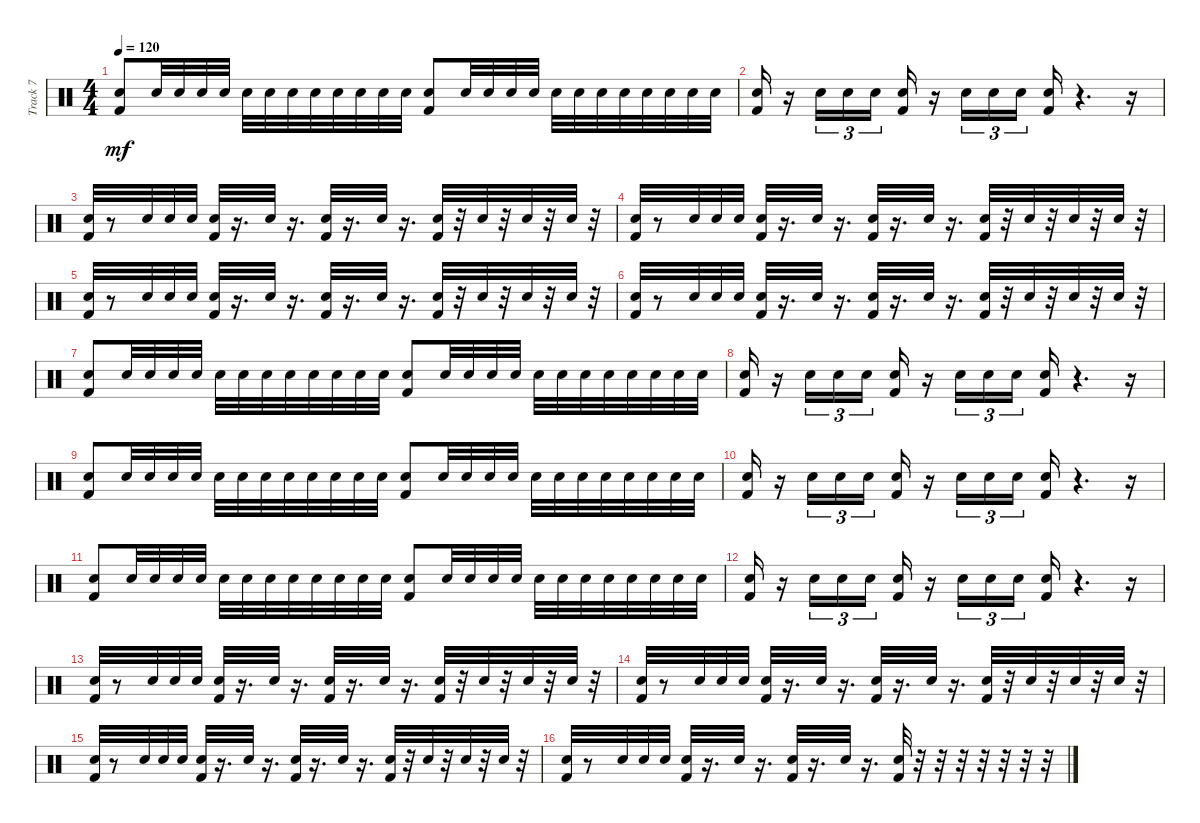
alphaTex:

\track ("Track 7" "Track 7") {instrument percussion}
\staff {score}
\articulation defaults
\ts (4 4)
\tempo 120
\clef neutral
\ks c
("Electric Snare (hit)" "Kick (hit) 2").8{dy mf} "Electric Snare (hit)".32 "Electric Snare (hit)".32 "Electric Snare (hit)".32 "Electric Snare (hit)".32 "Electric Snare (hit)".32 "Electric Snare (hit)".32 "Electric Snare (hit)".32 "Electric Snare (hit)".32 "Electric Snare (hit)".32 "Electric Snare (hit)".32 "Electric Snare (hit)".32 "Electric Snare (hit)".32 ("Electric Snare (hit)" "Kick (hit) 2").8 "Electric Snare (hit)".32 "Electric Snare (hit)".32 "Electric Snare (hit)".32 "Electric Snare (hit)".32 "Electric Snare (hit)".32 "Electric Snare (hit)".32 "Electric Snare (hit)".32 "Electric Snare (hit)".32 "Electric Snare (hit)".32 "Electric Snare (hit)".32 "Electric Snare (hit)".32 "Electric Snare (hit)".32 |
("Electric Snare (hit)" "Kick (hit) 2").16 r.16 "Electric Snare (hit)".16{tu (3 2)} "Electric Snare (hit)".16{tu (3 2)} "Electric Snare (hit)".16{tu (3 2)} ("Electric Snare (hit)" "Kick (hit) 2").16 r.16 "Electric Snare (hit)".16{tu (3 2)} "Electric Snare (hit)".16{tu (3 2)} "Electric Snare (hit)".16{tu (3 2)} ("Electric Snare (hit)" "Kick (hit) 2").16 r.4{d} r.16 |
("Electric Snare (hit)" "Kick (hit) 2").32 r.8 "Electric Snare (hit)".32 "Electric Snare (hit)".32 "Electric Snare (hit)".32 ("Electric Snare (hit)" "Kick (hit) 2").32 r.16{d} "Electric Snare (hit)".32 r.16{d} ("Electric Snare (hit)" "Kick (hit) 2").32 r.16{d} "Electric Snare (hit)".32 r.16{d} ("Electric Snare (hit)" "Kick (hit) 2").32 r.32 "Electric Snare (hit)".32 r.32 "Electric Snare (hit)".32 r.32 "Electric Snare (hit)".32 r.32 |
("Electric Snare (hit)" "Kick (hit) 2").32 r.8 "Electric Snare (hit)".32 "Electric Snare (hit)".32 "Electric Snare (hit)".32 ("Electric Snare (hit)" "Kick (hit) 2").32 r.16{d} "Electric Snare (hit)".32 r.16{d} ("Electric Snare (hit)" "Kick (hit) 2").32 r.16{d} "Electric Snare (hit)".32 r.16{d} ("Electric Snare (hit)" "Kick (hit) 2").32 r.32 "Electric Snare (hit)".32 r.32 "Electric Snare (hit)".32 r.32 "Electric Snare (hit)".32 r.32 |
("Electric Snare (hit)" "Kick (hit) 2").32 r.8 "Electric Snare (hit)".32 "Electric Snare (hit)".32 "Electric Snare (hit)".32 ("Electric Snare (hit)" "Kick (hit) 2").32 r.16{d} "Electric Snare (hit)".32 r.16{d} ("Electric Snare (hit)" "Kick (hit) 2").32 r.16{d} "Electric Snare (hit)".32 r.16{d} ("Electric Snare (hit)" "Kick (hit) 2").32 r.32 "Electric Snare (hit)".32 r.32 "Electric Snare (hit)".32 r.32 "Electric Snare (hit)".32 r.32 |
("Electric Snare (hit)" "Kick (hit) 2").32 r.8 "Electric Snare (hit)".32 "Electric Snare (hit)".32 "Electric Snare (hit)".32 ("Electric Snare (hit)" "Kick (hit) 2").32 r.16{d} "Electric Snare (hit)".32 r.16{d} ("Electric Snare (hit)" "Kick (hit) 2").32 r.16{d} "Electric Snare (hit)".32 r.16{d} ("Electric Snare (hit)" "Kick (hit) 2").32 r.32 "Electric Snare (hit)".32 r.32 "Electric Snare (hit)".32 r.32 "Electric Snare (hit)".32 r.32 |
("Electric Snare (hit)" "Kick (hit) 2").8 "Electric Snare (hit)".32 "Electric Snare (hit)".32 "Electric Snare (hit)".32 "Electric Snare (hit)".32 "Electric Snare (hit)".32 "Electric Snare (hit)".32 "Electric Snare (hit)".32 "Electric Snare (hit)".32 "Electric Snare (hit)".32 "Electric Snare (hit)".32 "Electric Snare (hit)".32 "Electric Snare (hit)".32 ("Electric Snare (hit)" "Kick (hit) 2").8 "Electric Snare (hit)".32 "Electric Snare (hit)".32 "Electric Snare (hit)".32 "Electric Snare (hit)".32 "Electric Snare (hit)".32 "Electric Snare (hit)".32 "Electric Snare (hit)".32 "Electric Snare (hit)".32 "Electric Snare (hit)".32 "Electric Snare (hit)".32 "Electric Snare (hit)".32 "Electric Snare (hit)".32 |
("Electric Snare (hit)" "Kick (hit) 2").16 r.16 "Electric Snare (hit)".16{tu (3 2)} "Electric Snare (hit)".16{tu (3 2)} "Electric Snare (hit)".16{tu (3 2)} ("Electric Snare (hit)" "Kick (hit) 2").16 r.16 "Electric Snare (hit)".16{tu (3 2)} "Electric Snare (hit)".16{tu (3 2)} "Electric Snare (hit)".16{tu (3 2)} ("Electric Snare (hit)" "Kick (hit) 2").16 r.4{d} r.16 |
("Electric Snare (hit)" "Kick (hit) 2").8 "Electric Snare (hit)".32 "Electric Snare (hit)".32 "Electric Snare (hit)".32 "Electric Snare (hit)".32 "Electric Snare (hit)".32 "Electric Snare (hit)".32 "Electric Snare (hit)".32 "Electric Snare (hit)".32 "Electric Snare (hit)".32 "Electric Snare (hit)".32 "Electric Snare (hit)".32 "Electric Snare (hit)".32 ("Electric Snare (hit)" "Kick (hit) 2").8 "Electric Snare (hit)".32 "Electric Snare (hit)".32 "Electric Snare (hit)".32 "Electric Snare (hit)".32 "Electric Snare (hit)".32 "Electric Snare (hit)".32 "Electric Snare (hit)".32 "Electric Snare (hit)".32 "Electric Snare (hit)".32 "Electric Snare (hit)".32 "Electric Snare (hit)".32 "Electric Snare (hit)".32 |
("Electric Snare (hit)" "Kick (hit) 2").16 r.16 "Electric Snare (hit)".16{tu (3 2)} "Electric Snare (hit)".16{tu (3 2)} "Electric Snare (hit)".16{tu (3 2)} ("Electric Snare (hit)" "Kick (hit) 2").16 r.16 "Electric Snare (hit)".16{tu (3 2)} "Electric Snare (hit)".16{tu (3 2)} "Electric Snare (hit)".16{tu (3 2)} ("Electric Snare (hit)" "Kick (hit) 2").16 r.4{d} r.16 |
("Electric Snare (hit)" "Kick (hit) 2").8 "Electric Snare (hit)".32 "Electric Snare (hit)".32 "Electric Snare (hit)".32 "Electric Snare (hit)".32 "Electric Snare (hit)".32 "Electric Snare (hit)".32 "Electric Snare (hit)".32 "Electric Snare (hit)".32 "Electric Snare (hit)".32 "Electric Snare (hit)".32 "Electric Snare (hit)".32 "Electric Snare (hit)".32 ("Electric Snare (hit)" "Kick (hit) 2").8 "Electric Snare (hit)".32 "Electric Snare (hit)".32 "Electric Snare (hit)".32 "Electric Snare (hit)".32 "Electric Snare (hit)".32 "Electric Snare (hit)".32 "Electric Snare (hit)".32 "Electric Snare (hit)".32 "Electric Snare (hit)".32 "Electric Snare (hit)".32 "Electric Snare (hit)".32 "Electric Snare (hit)".32 |
("Electric Snare (hit)" "Kick (hit) 2").16 r.16 "Electric Snare (hit)".16{tu (3 2)} "Electric Snare (hit)".16{tu (3 2)} "Electric Snare (hit)".16{tu (3 2)} ("Electric Snare (hit)" "Kick (hit) 2").16 r.16 "Electric Snare (hit)".16{tu (3 2)} "Electric Snare (hit)".16{tu (3 2)} "Electric Snare (hit)".16{tu (3 2)} ("Electric Snare (hit)" "Kick (hit) 2").16 r.4{d} r.16 |
("Electric Snare (hit)" "Kick (hit) 2").32 r.8 "Electric Snare (hit)".32 "Electric Snare (hit)".32 "Electric Snare (hit)".32 ("Electric Snare (hit)" "Kick (hit) 2").32 r.16{d} "Electric Snare (hit)".32 r.16{d} ("Electric Snare (hit)" "Kick (hit) 2").32 r.16{d} "Electric Snare (hit)".32 r.16{d} ("Electric Snare (hit)" "Kick (hit) 2").32 r.32 "Electric Snare (hit)".32 r.32 "Electric Snare (hit)".32 r.32 "Electric Snare (hit)".32 r.32 |
("Electric Snare (hit)" "Kick (hit) 2").32 r.8 "Electric Snare (hit)".32 "Electric Snare (hit)".32 "Electric Snare (hit)".32 ("Electric Snare (hit)" "Kick (hit) 2").32 r.16{d} "Electric Snare (hit)".32 r.16{d} ("Electric Snare (hit)" "Kick (hit) 2").32 r.16{d} "Electric Snare (hit)".32 r.16{d} ("Electric Snare (hit)" "Kick (hit) 2").32 r.32 "Electric Snare (hit)".32 r.32 "Electric Snare (hit)".32 r.32 "Electric Snare (hit)".32 r.32 |
("Electric Snare (hit)" "Kick (hit) 2").32 r.8 "Electric Snare (hit)".32 "Electric Snare (hit)".32 "Electric Snare (hit)".32 ("Electric Snare (hit)" "Kick (hit) 2").32 r.16{d} "Electric Snare (hit)".32 r.16{d} ("Electric Snare (hit)" "Kick (hit) 2").32 r.16{d} "Electric Snare (hit)".32 r.16{d} ("Electric Snare (hit)" "Kick (hit) 2").32 r.32 "Electric Snare (hit)".32 r.32 "Electric Snare (hit)".32 r.32 "Electric Snare (hit)".32 r.32 |
("Electric Snare (hit)" "Kick (hit) 2").32 r.8 "Electric Snare (hit)".32 "Electric Snare (hit)".32 "Electric Snare (hit)".32 ("Electric Snare (hit)" "Kick (hit) 2").32 r.16{d} "Electric Snare (hit)".32 r.16{d} ("Electric Snare (hit)" "Kick (hit) 2").32 r.16{d} "Electric Snare (hit)".32 r.16{d} ("Electric Snare (hit)" "Kick (hit) 2").32 r.32 r.32 r.32 r.32 r.32 r.32 r.32
